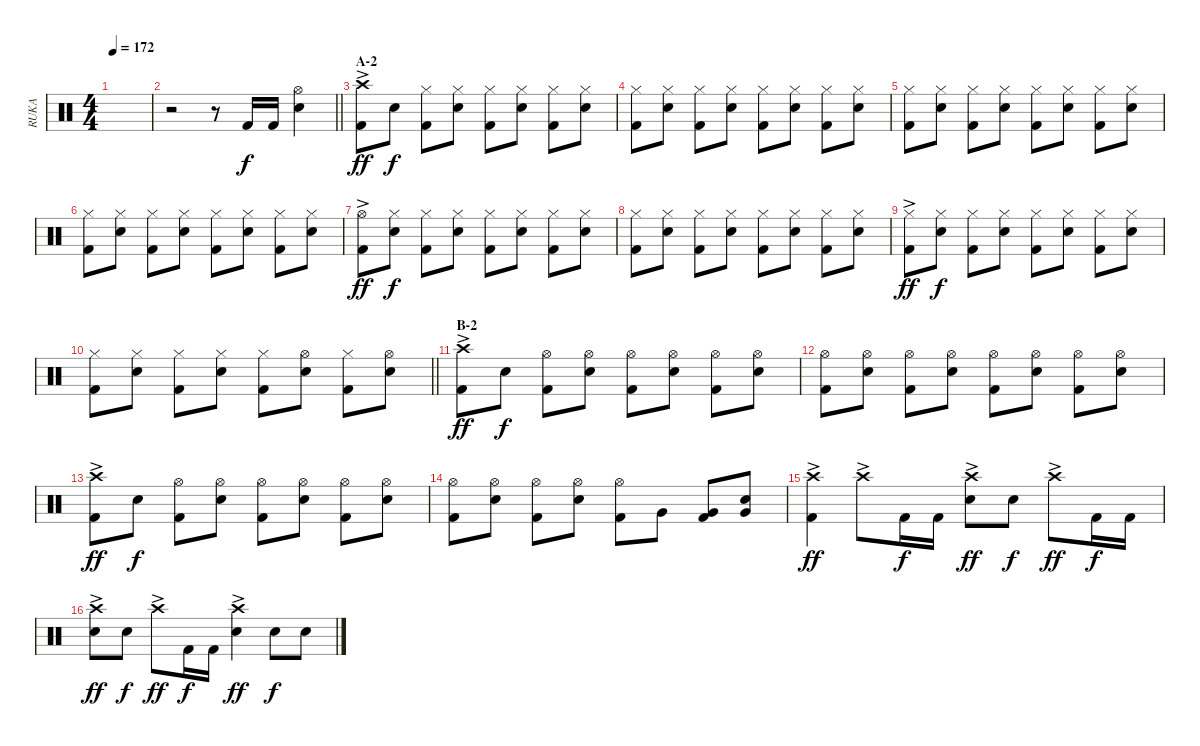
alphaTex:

\track ("RUKA" "RUKA") {instrument percussion}
\staff {score}
\articulation defaults
\ts (4 4)
\tempo 172
\clef neutral
\ks c
|
\barLineRight lightlight
r.2 r.8 "Kick (hit) 2".16 "Kick (hit) 2".16 ("Hi-Hat (open)" "Snare (hit) 2").4 |
\section ("" "A-2")
("Crash high (hit)"{ac} "Kick (hit) 2").8{dy ff} "Snare (hit) 2".8{dy f} ("Hi-Hat (closed)" "Kick (hit) 2").8 ("Hi-Hat (closed)" "Snare (hit) 2").8 ("Hi-Hat (closed)" "Kick (hit) 2").8 ("Hi-Hat (closed)" "Snare (hit) 2").8 ("Hi-Hat (closed)" "Kick (hit) 2").8 ("Hi-Hat (closed)" "Snare (hit) 2").8 |
("Hi-Hat (closed)" "Kick (hit) 2").8 ("Hi-Hat (closed)" "Snare (hit) 2").8 ("Hi-Hat (closed)" "Kick (hit) 2").8 ("Hi-Hat (closed)" "Snare (hit) 2").8 ("Hi-Hat (closed)" "Kick (hit) 2").8 ("Hi-Hat (closed)" "Snare (hit) 2").8 ("Hi-Hat (closed)" "Kick (hit) 2").8 ("Hi-Hat (closed)" "Snare (hit) 2").8 |
("Hi-Hat (closed)" "Kick (hit) 2").8 ("Hi-Hat (closed)" "Snare (hit) 2").8 ("Hi-Hat (closed)" "Kick (hit) 2").8 ("Hi-Hat (closed)" "Snare (hit) 2").8 ("Hi-Hat (closed)" "Kick (hit) 2").8 ("Hi-Hat (closed)" "Snare (hit) 2").8 ("Hi-Hat (closed)" "Kick (hit) 2").8 ("Hi-Hat (closed)" "Snare (hit) 2").8 |
("Hi-Hat (closed)" "Kick (hit) 2").8 ("Hi-Hat (closed)" "Snare (hit) 2").8 ("Hi-Hat (closed)" "Kick (hit) 2").8 ("Hi-Hat (closed)" "Snare (hit) 2").8 ("Hi-Hat (closed)" "Kick (hit) 2").8 ("Hi-Hat (closed)" "Snare (hit) 2").8 ("Hi-Hat (closed)" "Kick (hit) 2").8 ("Hi-Hat (closed)" "Snare (hit) 2").8 |
("Hi-Hat (open)"{ac} "Kick (hit) 2").8{dy ff} ("Hi-Hat (closed)" "Snare (hit) 2").8{dy f} ("Hi-Hat (closed)" "Kick (hit) 2").8 ("Hi-Hat (closed)" "Snare (hit) 2").8 ("Hi-Hat (closed)" "Kick (hit) 2").8 ("Hi-Hat (closed)" "Snare (hit) 2").8 ("Hi-Hat (closed)" "Kick (hit) 2").8 ("Hi-Hat (closed)" "Snare (hit) 2").8 |
("Hi-Hat (closed)" "Kick (hit) 2").8 ("Hi-Hat (closed)" "Snare (hit) 2").8 ("Hi-Hat (closed)" "Kick (hit) 2").8 ("Hi-Hat (closed)" "Snare (hit) 2").8 ("Hi-Hat (closed)" "Kick (hit) 2").8 ("Hi-Hat (closed)" "Snare (hit) 2").8 ("Hi-Hat (closed)" "Kick (hit) 2").8 ("Hi-Hat (closed)" "Snare (hit) 2").8 |
("Hi-Hat (closed)"{ac} "Kick (hit) 2").8{dy ff} ("Hi-Hat (closed)" "Snare (hit) 2").8{dy f} ("Hi-Hat (closed)" "Kick (hit) 2").8 ("Hi-Hat (closed)" "Snare (hit) 2").8 ("Hi-Hat (closed)" "Kick (hit) 2").8 ("Hi-Hat (closed)" "Snare (hit) 2").8 ("Hi-Hat (closed)" "Kick (hit) 2").8 ("Hi-Hat (closed)" "Snare (hit) 2").8 |
\barLineRight lightlight
("Hi-Hat (closed)" "Kick (hit) 2").8 ("Hi-Hat (closed)" "Snare (hit) 2").8 ("Hi-Hat (closed)" "Kick (hit) 2").8 ("Hi-Hat (closed)" "Snare (hit) 2").8 ("Hi-Hat (closed)" "Kick (hit) 2").8 ("Hi-Hat (open)" "Snare (hit) 2").8 ("Hi-Hat (closed)" "Kick (hit) 2").8 ("Hi-Hat (open)" "Snare (hit) 2").8 |
\section ("" "B-2")
("Crash high (hit)"{ac} "Kick (hit) 2").8{dy ff} "Snare (hit) 2".8{dy f} ("Hi-Hat (open)" "Kick (hit) 2").8 ("Hi-Hat (open)" "Snare (hit) 2").8 ("Hi-Hat (open)" "Kick (hit) 2").8 ("Hi-Hat (open)" "Snare (hit) 2").8 ("Hi-Hat (open)" "Kick (hit) 2").8 ("Hi-Hat (open)" "Snare (hit) 2").8 |
("Hi-Hat (open)" "Kick (hit) 2").8 ("Hi-Hat (open)" "Snare (hit) 2").8 ("Hi-Hat (open)" "Kick (hit) 2").8 ("Hi-Hat (open)" "Snare (hit) 2").8 ("Hi-Hat (open)" "Kick (hit) 2").8 ("Hi-Hat (open)" "Snare (hit) 2").8 ("Hi-Hat (open)" "Kick (hit) 2").8 ("Hi-Hat (open)" "Snare (hit) 2").8 |
("Crash high (hit)"{ac} "Kick (hit) 2").8{dy ff} "Snare (hit) 2".8{dy f} ("Hi-Hat (open)" "Kick (hit) 2").8 ("Hi-Hat (open)" "Snare (hit) 2").8 ("Hi-Hat (open)" "Kick (hit) 2").8 ("Hi-Hat (open)" "Snare (hit) 2").8 ("Hi-Hat (open)" "Kick (hit) 2").8 ("Hi-Hat (open)" "Snare (hit) 2").8 |
("Hi-Hat (open)" "Kick (hit) 2").8 ("Hi-Hat (open)" "Snare (hit) 2").8 ("Hi-Hat (open)" "Kick (hit) 2").8 ("Hi-Hat (open)" "Snare (hit) 2").8 ("Hi-Hat (open)" "Kick (hit) 2").8 "Very Low Tom (hit)".8 ("Very Low Tom (hit)" "Kick (hit) 2").8 ("Snare (hit) 2" "Very Low Tom (hit)").8 |
("Crash high (hit)"{ac} "Kick (hit) 2").4{dy ff} "Crash high (hit)"{ac}.8 "Kick (hit) 2".16{dy f} "Kick (hit) 2".16 ("Crash high (hit)"{ac} "Snare (hit) 2").8{dy ff} "Snare (hit) 2".8{dy f} "Crash high (hit)"{ac}.8{dy ff} "Kick (hit) 2".16{dy f} "Kick (hit) 2".16 |
("Crash high (hit)"{ac} "Snare (hit) 2").8{dy ff} "Snare (hit) 2".8{dy f} "Crash high (hit)"{ac}.8{dy ff} "Kick (hit) 2".16{dy f} "Kick (hit) 2".16 ("Crash high (hit)"{ac} "Snare (hit) 2").4{dy ff} "Snare (hit) 2".8{dy f} "Snare (hit) 2".8
